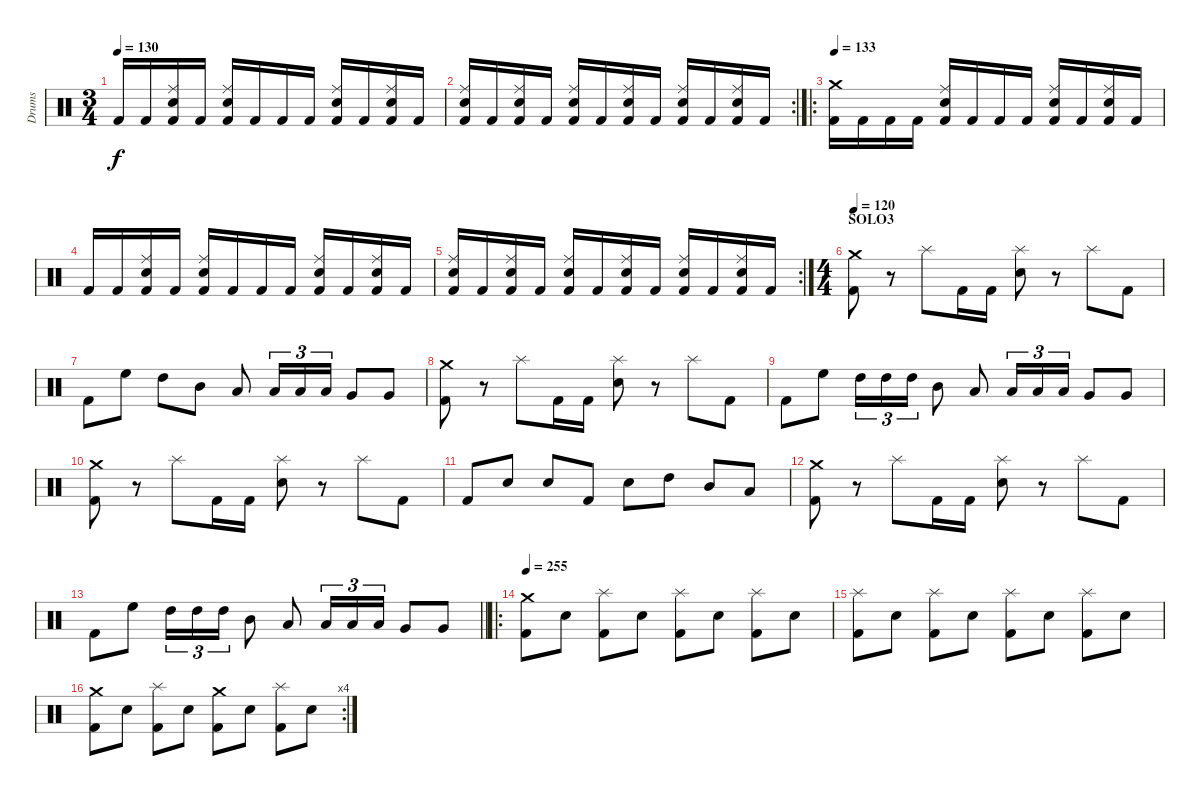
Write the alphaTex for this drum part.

\track ("Drums" "Drums") {instrument percussion}
\staff {score}
\articulation defaults
\ts (3 4)
\tempo 130
\clef neutral
\ks c "Kick (hit) 2".16{dy f} "Kick (hit) 2".16
("Ride (middle)" "Snare (hit) 2" "Kick (hit) 2").16 "Kick (hit) 2".16 ("Ride (middle)" "Snare (hit) 2" "Kick (hit) 2").16 "Kick (hit) 2".16 "Kick (hit) 2".16 "Kick (hit) 2".16 ("Ride (middle)" "Snare (hit) 2" "Kick (hit) 2").16 "Kick (hit) 2".16 ("Ride (middle)" "Snare (hit) 2" "Kick (hit) 2").16 "Kick (hit) 2".16 |
\rc 2
("Ride (middle)" "Snare (hit) 2" "Kick (hit) 2").16 "Kick (hit) 2".16 ("Ride (middle)" "Snare (hit) 2" "Kick (hit) 2").16 "Kick (hit) 2".16 ("Ride (middle)" "Snare (hit) 2" "Kick (hit) 2").16 "Kick (hit) 2".16 ("Ride (middle)" "Snare (hit) 2" "Kick (hit) 2").16 "Kick (hit) 2".16 ("Ride (middle)" "Snare (hit) 2" "Kick (hit) 2").16 "Kick (hit) 2".16 ("Ride (middle)" "Snare (hit) 2" "Kick (hit) 2").16 "Kick (hit) 2".16 |
\ro
\tempo 133
("Crash medium (hit)" "Kick (hit) 2").16 "Kick (hit) 2".16 "Kick (hit) 2".16 "Kick (hit) 2".16 ("Ride (middle)" "Snare (hit) 2" "Kick (hit) 2").16 "Kick (hit) 2".16 "Kick (hit) 2".16 "Kick (hit) 2".16 ("Ride (middle)" "Snare (hit) 2" "Kick (hit) 2").16 "Kick (hit) 2".16 ("Ride (middle)" "Snare (hit) 2" "Kick (hit) 2").16 "Kick (hit) 2".16 |
"Kick (hit) 2".16 "Kick (hit) 2".16 ("Ride (middle)" "Snare (hit) 2" "Kick (hit) 2").16 "Kick (hit) 2".16 ("Ride (middle)" "Snare (hit) 2" "Kick (hit) 2").16 "Kick (hit) 2".16 "Kick (hit) 2".16 "Kick (hit) 2".16 ("Ride (middle)" "Snare (hit) 2" "Kick (hit) 2").16 "Kick (hit) 2".16 ("Ride (middle)" "Snare (hit) 2" "Kick (hit) 2").16 "Kick (hit) 2".16 |
\rc 2
("Ride (middle)" "Snare (hit) 2" "Kick (hit) 2").16 "Kick (hit) 2".16 ("Ride (middle)" "Snare (hit) 2" "Kick (hit) 2").16 "Kick (hit) 2".16 ("Ride (middle)" "Snare (hit) 2" "Kick (hit) 2").16 "Kick (hit) 2".16 ("Ride (middle)" "Snare (hit) 2" "Kick (hit) 2").16 "Kick (hit) 2".16 ("Ride (middle)" "Snare (hit) 2" "Kick (hit) 2").16 "Kick (hit) 2".16 ("Ride (middle)" "Snare (hit) 2" "Kick (hit) 2").16 "Kick (hit) 2".16 |
\ts (4 4)
\section ("" "SOLO3")
\tempo 120
("Crash medium (hit)" "Kick (hit) 2").8 r.8 "Splash (hit)".8 "Kick (hit) 2".16 "Kick (hit) 2".16 ("Splash (hit)" "Snare (hit) 2").8 r.8 "Splash (hit)".8 "Kick (hit) 2".8 |
"Kick (hit) 2".8 "High Floor Tom (hit)".8 "High Tom (hit)".8 "Mid Tom (hit)".8 "Low Tom (hit)".8 "Low Tom (hit)".16{tu (3 2)} "Low Tom (hit)".16{tu (3 2)} "Low Tom (hit)".16{tu (3 2)} "Very Low Tom (hit)".8 "Very Low Tom (hit)".8 |
("Crash medium (hit)" "Kick (hit) 2").8 r.8 "Splash (hit)".8 "Kick (hit) 2".16 "Kick (hit) 2".16 ("Splash (hit)" "Snare (hit) 2").8 r.8 "Splash (hit)".8 "Kick (hit) 2".8 |
"Kick (hit) 2".8 "High Floor Tom (hit)".8 "High Tom (hit)".16{tu (3 2)} "High Tom (hit)".16{tu (3 2)} "High Tom (hit)".16{tu (3 2)} "Mid Tom (hit)".8 "Low Tom (hit)".8 "Low Tom (hit)".16{tu (3 2)} "Low Tom (hit)".16{tu (3 2)} "Low Tom (hit)".16{tu (3 2)} "Very Low Tom (hit)".8 "Very Low Tom (hit)".8 |
("Crash medium (hit)" "Kick (hit) 2").8 r.8 "Splash (hit)".8 "Kick (hit) 2".16 "Kick (hit) 2".16 ("Splash (hit)" "Snare (hit) 2").8 r.8 "Splash (hit)".8 "Kick (hit) 2".8 |
"Kick (hit) 2".8 "Snare (hit) 2".8 "Snare (hit) 2".8 "Kick (hit) 2".8 "Snare (hit) 2".8 "High Tom (hit)".8 "Mid Tom (hit)".8 "Low Tom (hit)".8 |
("Crash medium (hit)" "Kick (hit) 2").8 r.8 "Splash (hit)".8 "Kick (hit) 2".16 "Kick (hit) 2".16 ("Splash (hit)" "Snare (hit) 2").8 r.8 "Splash (hit)".8 "Kick (hit) 2".8 |
\barLineRight lightlight "Kick (hit) 2".8 "High Floor Tom (hit)".8 "High Tom (hit)".16{tu (3 2)} "High Tom (hit)".16{tu (3 2)} "High Tom (hit)".16{tu (3 2)} "Mid Tom (hit)".8 "Low Tom (hit)".8 "Low Tom (hit)".16{tu (3 2)} "Low Tom (hit)".16{tu (3 2)} "Low Tom (hit)".16{tu (3 2)} "Very Low Tom (hit)".8 "Very Low Tom (hit)".8
|
\ro
\tempo 255
("Crash medium (hit)" "Kick (hit) 2").8 "Snare (hit) 2".8 ("Splash (hit)" "Kick (hit) 2").8 "Snare (hit) 2".8 ("Splash (hit)" "Kick (hit) 2").8 "Snare (hit) 2".8 ("Splash (hit)" "Kick (hit) 2").8 "Snare (hit) 2".8 |
("Splash (hit)" "Kick (hit) 2").8 "Snare (hit) 2".8 ("Splash (hit)" "Kick (hit) 2").8 "Snare (hit) 2".8 ("Splash (hit)" "Kick (hit) 2").8 "Snare (hit) 2".8 ("Splash (hit)" "Kick (hit) 2").8 "Snare (hit) 2".8 |
\rc 4
("Crash medium (hit)" "Kick (hit) 2").8 "Snare (hit) 2".8 ("Splash (hit)" "Kick (hit) 2").8 "Snare (hit) 2".8 ("Crash medium (hit)" "Kick (hit) 2").8 "Snare (hit) 2".8 ("Splash (hit)" "Kick (hit) 2").8 "Snare (hit) 2".8
